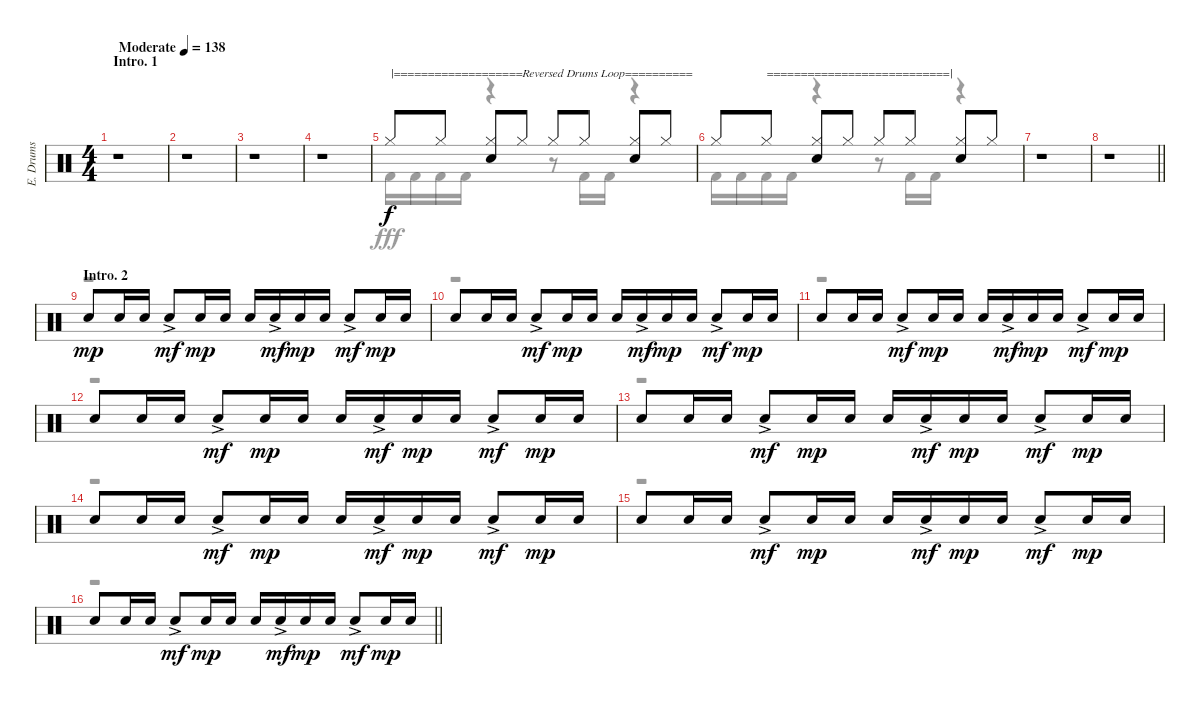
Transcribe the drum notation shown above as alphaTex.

\track ("E. Drums" "E. Drums") {instrument percussion}
\staff {score}
\articulation defaults
\voice
\ts (4 4)
\section ("" "Intro. 1")
\tempo (138 "Moderate")
\clef neutral
\ks c
r.1{dy f} |
r.1 |
r.1 |
r.1 |
"Hi-Hat (closed)".8{txt "|===================Reversed Drums Loop=========="} "Hi-Hat (closed)".8 ("Hi-Hat (closed)" "Electric Snare (hit)").8 "Hi-Hat (closed)".8 "Hi-Hat (closed)".8 "Hi-Hat (closed)".8 ("Hi-Hat (closed)" "Electric Snare (hit)").8 "Hi-Hat (closed)".8 |
"Hi-Hat (closed)".8 "Hi-Hat (closed)".8{txt "===========================|"} ("Hi-Hat (closed)" "Electric Snare (hit)").8 "Hi-Hat (closed)".8 "Hi-Hat (closed)".8 "Hi-Hat (closed)".8 ("Hi-Hat (closed)" "Electric Snare (hit)").8 "Hi-Hat (closed)".8 |
r.1 |
\barLineRight lightlight
r.1 |
\section ("" "Intro. 2")
"Electric Snare (hit)".8{dy mp} "Electric Snare (hit)".16 "Electric Snare (hit)".16 "Electric Snare (hit)"{ac}.8{dy mf} "Electric Snare (hit)".16{dy mp} "Electric Snare (hit)".16 "Electric Snare (hit)".16 "Electric Snare (hit)"{ac}.16{dy mf} "Electric Snare (hit)".16{dy mp} "Electric Snare (hit)".16 "Electric Snare (hit)"{ac}.8{dy mf} "Electric Snare (hit)".16{dy mp} "Electric Snare (hit)".16 |
"Electric Snare (hit)".8 "Electric Snare (hit)".16 "Electric Snare (hit)".16 "Electric Snare (hit)"{ac}.8{dy mf} "Electric Snare (hit)".16{dy mp} "Electric Snare (hit)".16 "Electric Snare (hit)".16 "Electric Snare (hit)"{ac}.16{dy mf} "Electric Snare (hit)".16{dy mp} "Electric Snare (hit)".16 "Electric Snare (hit)"{ac}.8{dy mf} "Electric Snare (hit)".16{dy mp} "Electric Snare (hit)".16 |
"Electric Snare (hit)".8 "Electric Snare (hit)".16 "Electric Snare (hit)".16 "Electric Snare (hit)"{ac}.8{dy mf} "Electric Snare (hit)".16{dy mp} "Electric Snare (hit)".16 "Electric Snare (hit)".16 "Electric Snare (hit)"{ac}.16{dy mf} "Electric Snare (hit)".16{dy mp} "Electric Snare (hit)".16 "Electric Snare (hit)"{ac}.8{dy mf} "Electric Snare (hit)".16{dy mp} "Electric Snare (hit)".16 |
"Electric Snare (hit)".8 "Electric Snare (hit)".16 "Electric Snare (hit)".16 "Electric Snare (hit)"{ac}.8{dy mf} "Electric Snare (hit)".16{dy mp} "Electric Snare (hit)".16 "Electric Snare (hit)".16 "Electric Snare (hit)"{ac}.16{dy mf} "Electric Snare (hit)".16{dy mp} "Electric Snare (hit)".16 "Electric Snare (hit)"{ac}.8{dy mf} "Electric Snare (hit)".16{dy mp} "Electric Snare (hit)".16 |
"Electric Snare (hit)".8 "Electric Snare (hit)".16 "Electric Snare (hit)".16 "Electric Snare (hit)"{ac}.8{dy mf} "Electric Snare (hit)".16{dy mp} "Electric Snare (hit)".16 "Electric Snare (hit)".16 "Electric Snare (hit)"{ac}.16{dy mf} "Electric Snare (hit)".16{dy mp} "Electric Snare (hit)".16 "Electric Snare (hit)"{ac}.8{dy mf} "Electric Snare (hit)".16{dy mp} "Electric Snare (hit)".16 |
"Electric Snare (hit)".8 "Electric Snare (hit)".16 "Electric Snare (hit)".16 "Electric Snare (hit)"{ac}.8{dy mf} "Electric Snare (hit)".16{dy mp} "Electric Snare (hit)".16 "Electric Snare (hit)".16 "Electric Snare (hit)"{ac}.16{dy mf} "Electric Snare (hit)".16{dy mp} "Electric Snare (hit)".16 "Electric Snare (hit)"{ac}.8{dy mf} "Electric Snare (hit)".16{dy mp} "Electric Snare (hit)".16 |
"Electric Snare (hit)".8 "Electric Snare (hit)".16 "Electric Snare (hit)".16 "Electric Snare (hit)"{ac}.8{dy mf} "Electric Snare (hit)".16{dy mp} "Electric Snare (hit)".16 "Electric Snare (hit)".16 "Electric Snare (hit)"{ac}.16{dy mf} "Electric Snare (hit)".16{dy mp} "Electric Snare (hit)".16 "Electric Snare (hit)"{ac}.8{dy mf} "Electric Snare (hit)".16{dy mp} "Electric Snare (hit)".16 |
\barLineRight lightlight "Electric Snare (hit)".8 "Electric Snare (hit)".16 "Electric Snare (hit)".16 "Electric Snare (hit)"{ac}.8{dy mf} "Electric Snare (hit)".16{dy mp} "Electric Snare (hit)".16 "Electric Snare (hit)".16 "Electric Snare (hit)"{ac}.16{dy mf} "Electric Snare (hit)".16{dy mp} "Electric Snare (hit)".16 "Electric Snare (hit)"{ac}.8{dy mf} "Electric Snare (hit)".16{dy mp} "Electric Snare (hit)".16
\voice
\clef neutral
\ottava regular
\simile none
\ks c
r.1{dy fff} |
r.1 |
r.1 |
r.1 |
"Kick (hit) 2".16 "Kick (hit) 2".16 "Kick (hit) 2".16 "Kick (hit) 2".16 r.4 r.8 "Kick (hit) 2".16 "Kick (hit) 2".16 r.4 |
"Kick (hit) 2".16 "Kick (hit) 2".16 "Kick (hit) 2".16 "Kick (hit) 2".16 r.4 r.8 "Kick (hit) 2".16 "Kick (hit) 2".16 r.4 |
r.1 |
\barLineRight lightlight
r.1 |
r.1 |
r.1 |
r.1 |
r.1 |
r.1 |
r.1 |
r.1 |
\barLineRight lightlight
r.1
